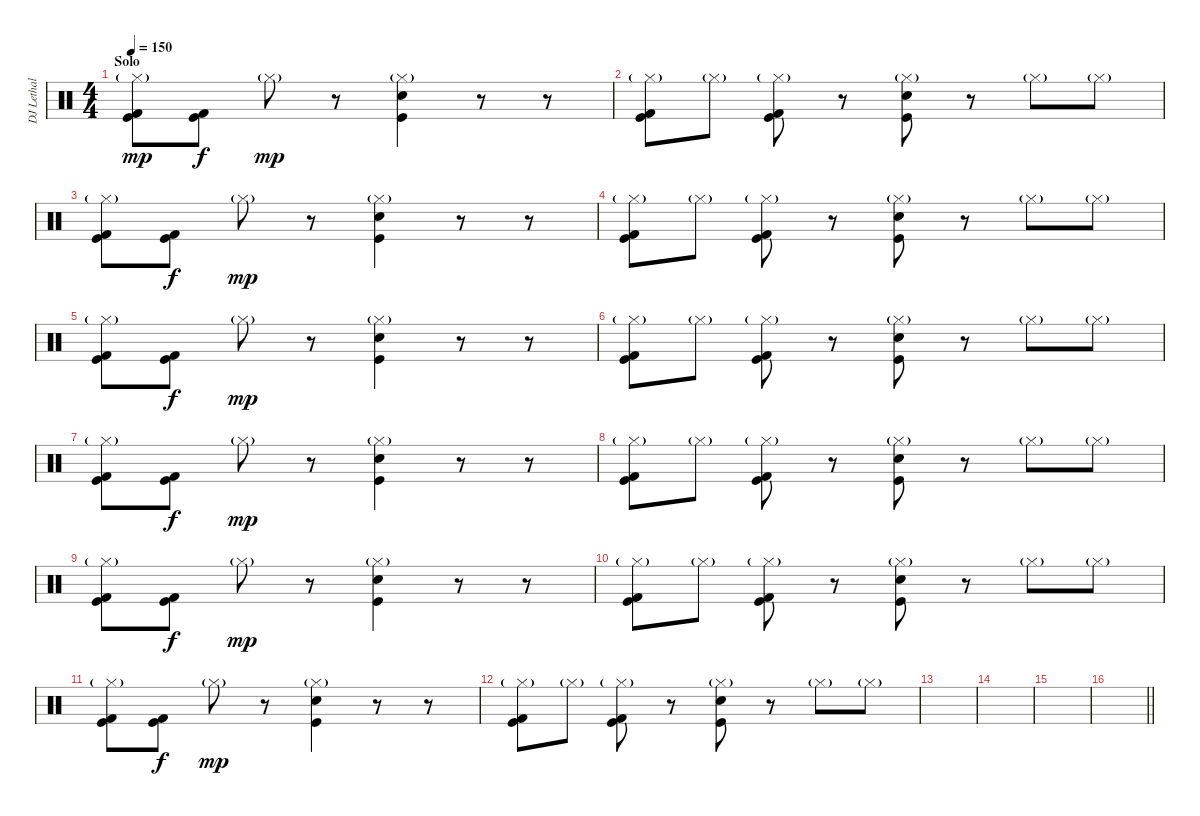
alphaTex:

\track ("DJ Lethal (Beats 2)" "DJ Lethal ") {instrument percussion}
\staff {score}
\articulation defaults
\ts (4 4)
\section ("" "Solo")
\tempo 150
\clef neutral
\ks c
("Hi-Hat (closed)"{g} "Kick (hit) 2" "Kick (hit)").8{dy mp} ("Kick (hit) 2" "Kick (hit)").8{dy f} "Hi-Hat (closed)"{g}.8{dy mp} r.8 ("Hi-Hat (closed)"{g} "Snare (hit) 2" "Kick (hit)").4 r.8 r.8 |
("Hi-Hat (closed)"{g} "Kick (hit) 2" "Kick (hit)").8 "Hi-Hat (closed)"{g}.8 ("Hi-Hat (closed)"{g} "Kick (hit) 2" "Kick (hit)").8 r.8 ("Hi-Hat (closed)"{g} "Snare (hit) 2" "Kick (hit)").8 r.8 "Hi-Hat (closed)"{g}.8 "Hi-Hat (closed)"{g}.8 |
("Hi-Hat (closed)"{g} "Kick (hit) 2" "Kick (hit)").8 ("Kick (hit) 2" "Kick (hit)").8{dy f} "Hi-Hat (closed)"{g}.8{dy mp} r.8 ("Hi-Hat (closed)"{g} "Snare (hit) 2" "Kick (hit)").4 r.8 r.8 |
("Hi-Hat (closed)"{g} "Kick (hit) 2" "Kick (hit)").8 "Hi-Hat (closed)"{g}.8 ("Hi-Hat (closed)"{g} "Kick (hit) 2" "Kick (hit)").8 r.8 ("Hi-Hat (closed)"{g} "Snare (hit) 2" "Kick (hit)").8 r.8 "Hi-Hat (closed)"{g}.8 "Hi-Hat (closed)"{g}.8 |
("Hi-Hat (closed)"{g} "Kick (hit) 2" "Kick (hit)").8 ("Kick (hit) 2" "Kick (hit)").8{dy f} "Hi-Hat (closed)"{g}.8{dy mp} r.8 ("Hi-Hat (closed)"{g} "Snare (hit) 2" "Kick (hit)").4 r.8 r.8 |
("Hi-Hat (closed)"{g} "Kick (hit) 2" "Kick (hit)").8 "Hi-Hat (closed)"{g}.8 ("Hi-Hat (closed)"{g} "Kick (hit) 2" "Kick (hit)").8 r.8 ("Hi-Hat (closed)"{g} "Snare (hit) 2" "Kick (hit)").8 r.8 "Hi-Hat (closed)"{g}.8 "Hi-Hat (closed)"{g}.8 |
("Hi-Hat (closed)"{g} "Kick (hit) 2" "Kick (hit)").8 ("Kick (hit) 2" "Kick (hit)").8{dy f} "Hi-Hat (closed)"{g}.8{dy mp} r.8 ("Hi-Hat (closed)"{g} "Snare (hit) 2" "Kick (hit)").4 r.8 r.8 |
("Hi-Hat (closed)"{g} "Kick (hit) 2" "Kick (hit)").8 "Hi-Hat (closed)"{g}.8 ("Hi-Hat (closed)"{g} "Kick (hit) 2" "Kick (hit)").8 r.8 ("Hi-Hat (closed)"{g} "Snare (hit) 2" "Kick (hit)").8 r.8 "Hi-Hat (closed)"{g}.8 "Hi-Hat (closed)"{g}.8 |
("Hi-Hat (closed)"{g} "Kick (hit) 2" "Kick (hit)").8 ("Kick (hit) 2" "Kick (hit)").8{dy f} "Hi-Hat (closed)"{g}.8{dy mp} r.8 ("Hi-Hat (closed)"{g} "Snare (hit) 2" "Kick (hit)").4 r.8 r.8 |
("Hi-Hat (closed)"{g} "Kick (hit) 2" "Kick (hit)").8 "Hi-Hat (closed)"{g}.8 ("Hi-Hat (closed)"{g} "Kick (hit) 2" "Kick (hit)").8 r.8 ("Hi-Hat (closed)"{g} "Snare (hit) 2" "Kick (hit)").8 r.8 "Hi-Hat (closed)"{g}.8 "Hi-Hat (closed)"{g}.8 |
("Hi-Hat (closed)"{g} "Kick (hit) 2" "Kick (hit)").8 ("Kick (hit) 2" "Kick (hit)").8{dy f} "Hi-Hat (closed)"{g}.8{dy mp} r.8 ("Hi-Hat (closed)"{g} "Snare (hit) 2" "Kick (hit)").4 r.8 r.8 |
("Hi-Hat (closed)"{g} "Kick (hit) 2" "Kick (hit)").8 "Hi-Hat (closed)"{g}.8 ("Hi-Hat (closed)"{g} "Kick (hit) 2" "Kick (hit)").8 r.8 ("Hi-Hat (closed)"{g} "Snare (hit) 2" "Kick (hit)").8 r.8 "Hi-Hat (closed)"{g}.8 "Hi-Hat (closed)"{g}.8 |
|
|
|
\barLineRight lightlight
